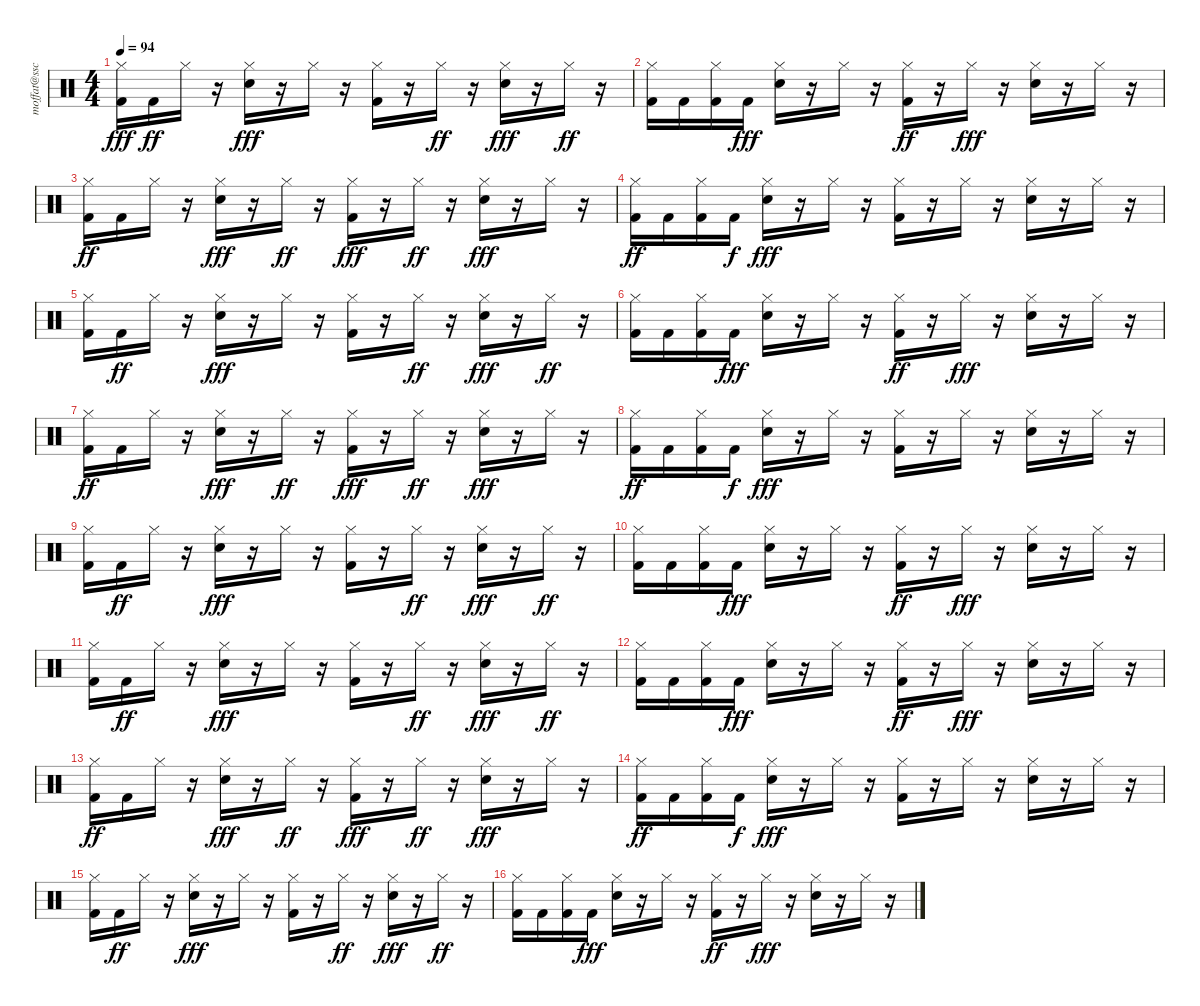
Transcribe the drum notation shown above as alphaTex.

\track ("moffat@sscl." "moffat@ssc") {instrument percussion}
\staff {score}
\articulation defaults
\ts (4 4)
\tempo 94
\clef neutral
\ks c
("Kick (hit) 2" "Hi-Hat (closed)").16{dy fff} "Kick (hit) 2".16{dy ff} "Hi-Hat (closed)".16 r.16 ("Snare (hit) 2" "Hi-Hat (closed)").16{dy fff} r.16 "Hi-Hat (closed)".16 r.16 ("Kick (hit) 2" "Hi-Hat (closed)").16 r.16 "Hi-Hat (closed)".16{dy ff} r.16 ("Snare (hit) 2" "Hi-Hat (closed)").16{dy fff} r.16 "Hi-Hat (closed)".16{dy ff} r.16 |
("Hi-Hat (closed)" "Kick (hit) 2").16 "Kick (hit) 2".16 ("Hi-Hat (closed)" "Kick (hit) 2").16 "Kick (hit) 2".16{dy fff} ("Hi-Hat (closed)" "Snare (hit) 2").16 r.16 "Hi-Hat (closed)".16 r.16 ("Hi-Hat (closed)" "Kick (hit) 2").16{dy ff} r.16 "Hi-Hat (closed)".16{dy fff} r.16 ("Hi-Hat (closed)" "Snare (hit) 2").16 r.16 "Hi-Hat (closed)".16 r.16 |
("Kick (hit) 2" "Hi-Hat (closed)").16{dy ff} "Kick (hit) 2".16 "Hi-Hat (closed)".16 r.16 ("Hi-Hat (closed)" "Snare (hit) 2").16{dy fff} r.16 "Hi-Hat (closed)".16{dy ff} r.16 ("Kick (hit) 2" "Hi-Hat (closed)").16{dy fff} r.16 "Hi-Hat (closed)".16{dy ff} r.16 ("Snare (hit) 2" "Hi-Hat (closed)").16{dy fff} r.16 "Hi-Hat (closed)".16 r.16 |
("Hi-Hat (closed)" "Kick (hit) 2").16{dy ff} "Kick (hit) 2".16 ("Hi-Hat (closed)" "Kick (hit) 2").16 "Kick (hit) 2".16{dy f} ("Hi-Hat (closed)" "Snare (hit) 2").16{dy fff} r.16 "Hi-Hat (closed)".16 r.16 ("Hi-Hat (closed)" "Kick (hit) 2").16 r.16 "Hi-Hat (closed)".16 r.16 ("Snare (hit) 2" "Hi-Hat (closed)").16 r.16 "Hi-Hat (closed)".16 r.16 |
("Kick (hit) 2" "Hi-Hat (closed)").16 "Kick (hit) 2".16{dy ff} "Hi-Hat (closed)".16 r.16 ("Snare (hit) 2" "Hi-Hat (closed)").16{dy fff} r.16 "Hi-Hat (closed)".16 r.16 ("Kick (hit) 2" "Hi-Hat (closed)").16 r.16 "Hi-Hat (closed)".16{dy ff} r.16 ("Snare (hit) 2" "Hi-Hat (closed)").16{dy fff} r.16 "Hi-Hat (closed)".16{dy ff} r.16 |
("Hi-Hat (closed)" "Kick (hit) 2").16 "Kick (hit) 2".16 ("Hi-Hat (closed)" "Kick (hit) 2").16 "Kick (hit) 2".16{dy fff} ("Hi-Hat (closed)" "Snare (hit) 2").16 r.16 "Hi-Hat (closed)".16 r.16 ("Hi-Hat (closed)" "Kick (hit) 2").16{dy ff} r.16 "Hi-Hat (closed)".16{dy fff} r.16 ("Hi-Hat (closed)" "Snare (hit) 2").16 r.16 "Hi-Hat (closed)".16 r.16 |
("Kick (hit) 2" "Hi-Hat (closed)").16{dy ff} "Kick (hit) 2".16 "Hi-Hat (closed)".16 r.16 ("Hi-Hat (closed)" "Snare (hit) 2").16{dy fff} r.16 "Hi-Hat (closed)".16{dy ff} r.16 ("Kick (hit) 2" "Hi-Hat (closed)").16{dy fff} r.16 "Hi-Hat (closed)".16{dy ff} r.16 ("Snare (hit) 2" "Hi-Hat (closed)").16{dy fff} r.16 "Hi-Hat (closed)".16 r.16 |
("Hi-Hat (closed)" "Kick (hit) 2").16{dy ff} "Kick (hit) 2".16 ("Hi-Hat (closed)" "Kick (hit) 2").16 "Kick (hit) 2".16{dy f} ("Hi-Hat (closed)" "Snare (hit) 2").16{dy fff} r.16 "Hi-Hat (closed)".16 r.16 ("Hi-Hat (closed)" "Kick (hit) 2").16 r.16 "Hi-Hat (closed)".16 r.16 ("Snare (hit) 2" "Hi-Hat (closed)").16 r.16 "Hi-Hat (closed)".16 r.16 |
("Kick (hit) 2" "Hi-Hat (closed)").16 "Kick (hit) 2".16{dy ff} "Hi-Hat (closed)".16 r.16 ("Snare (hit) 2" "Hi-Hat (closed)").16{dy fff} r.16 "Hi-Hat (closed)".16 r.16 ("Kick (hit) 2" "Hi-Hat (closed)").16 r.16 "Hi-Hat (closed)".16{dy ff} r.16 ("Snare (hit) 2" "Hi-Hat (closed)").16{dy fff} r.16 "Hi-Hat (closed)".16{dy ff} r.16 |
("Hi-Hat (closed)" "Kick (hit) 2").16 "Kick (hit) 2".16 ("Hi-Hat (closed)" "Kick (hit) 2").16 "Kick (hit) 2".16{dy fff} ("Hi-Hat (closed)" "Snare (hit) 2").16 r.16 "Hi-Hat (closed)".16 r.16 ("Hi-Hat (closed)" "Kick (hit) 2").16{dy ff} r.16 "Hi-Hat (closed)".16{dy fff} r.16 ("Hi-Hat (closed)" "Snare (hit) 2").16 r.16 "Hi-Hat (closed)".16 r.16 |
("Kick (hit) 2" "Hi-Hat (closed)").16 "Kick (hit) 2".16{dy ff} "Hi-Hat (closed)".16 r.16 ("Snare (hit) 2" "Hi-Hat (closed)").16{dy fff} r.16 "Hi-Hat (closed)".16 r.16 ("Kick (hit) 2" "Hi-Hat (closed)").16 r.16 "Hi-Hat (closed)".16{dy ff} r.16 ("Snare (hit) 2" "Hi-Hat (closed)").16{dy fff} r.16 "Hi-Hat (closed)".16{dy ff} r.16 |
("Hi-Hat (closed)" "Kick (hit) 2").16 "Kick (hit) 2".16 ("Hi-Hat (closed)" "Kick (hit) 2").16 "Kick (hit) 2".16{dy fff} ("Hi-Hat (closed)" "Snare (hit) 2").16 r.16 "Hi-Hat (closed)".16 r.16 ("Hi-Hat (closed)" "Kick (hit) 2").16{dy ff} r.16 "Hi-Hat (closed)".16{dy fff} r.16 ("Hi-Hat (closed)" "Snare (hit) 2").16 r.16 "Hi-Hat (closed)".16 r.16 |
("Kick (hit) 2" "Hi-Hat (closed)").16{dy ff} "Kick (hit) 2".16 "Hi-Hat (closed)".16 r.16 ("Hi-Hat (closed)" "Snare (hit) 2").16{dy fff} r.16 "Hi-Hat (closed)".16{dy ff} r.16 ("Kick (hit) 2" "Hi-Hat (closed)").16{dy fff} r.16 "Hi-Hat (closed)".16{dy ff} r.16 ("Snare (hit) 2" "Hi-Hat (closed)").16{dy fff} r.16 "Hi-Hat (closed)".16 r.16 |
("Hi-Hat (closed)" "Kick (hit) 2").16{dy ff} "Kick (hit) 2".16 ("Hi-Hat (closed)" "Kick (hit) 2").16 "Kick (hit) 2".16{dy f} ("Hi-Hat (closed)" "Snare (hit) 2").16{dy fff} r.16 "Hi-Hat (closed)".16 r.16 ("Hi-Hat (closed)" "Kick (hit) 2").16 r.16 "Hi-Hat (closed)".16 r.16 ("Snare (hit) 2" "Hi-Hat (closed)").16 r.16 "Hi-Hat (closed)".16 r.16 |
("Kick (hit) 2" "Hi-Hat (closed)").16 "Kick (hit) 2".16{dy ff} "Hi-Hat (closed)".16 r.16 ("Snare (hit) 2" "Hi-Hat (closed)").16{dy fff} r.16 "Hi-Hat (closed)".16 r.16 ("Kick (hit) 2" "Hi-Hat (closed)").16 r.16 "Hi-Hat (closed)".16{dy ff} r.16 ("Snare (hit) 2" "Hi-Hat (closed)").16{dy fff} r.16 "Hi-Hat (closed)".16{dy ff} r.16 |
("Hi-Hat (closed)" "Kick (hit) 2").16 "Kick (hit) 2".16 ("Hi-Hat (closed)" "Kick (hit) 2").16 "Kick (hit) 2".16{dy fff} ("Hi-Hat (closed)" "Snare (hit) 2").16 r.16 "Hi-Hat (closed)".16 r.16 ("Hi-Hat (closed)" "Kick (hit) 2").16{dy ff} r.16 "Hi-Hat (closed)".16{dy fff} r.16 ("Hi-Hat (closed)" "Snare (hit) 2").16 r.16 "Hi-Hat (closed)".16 r.16
